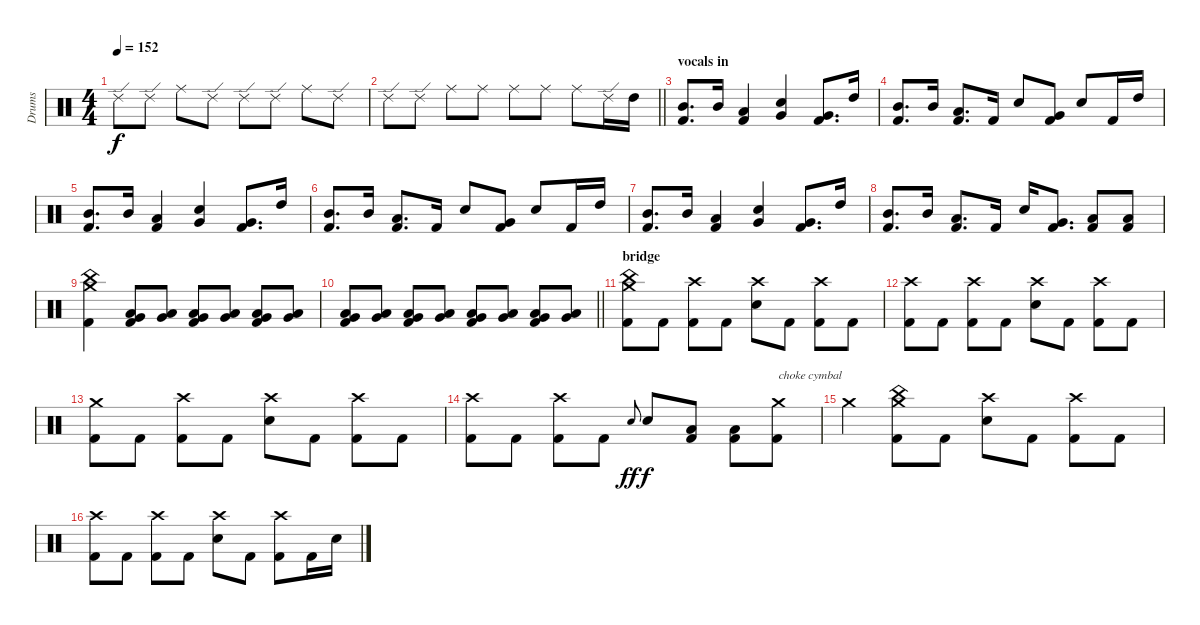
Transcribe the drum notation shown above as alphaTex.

\track ("Drums" "Drums") {instrument percussion}
\staff {score}
\articulation defaults
\ts (4 4)
\tempo 152
\clef neutral
\ks c "Ride (edge) 2".8{dy f} "Ride (edge) 2".8 "Ride (middle)".8 "Ride (edge) 2".8 "Ride (edge) 2".8 "Ride (edge) 2".8 "Ride (middle)".8 "Ride (edge) 2".8
|
\barLineRight lightlight "Ride (edge) 2".8 "Ride (edge) 2".8 "Ride (middle)".8 "Ride (middle)".8 "Ride (middle)".8 "Ride (middle)".8 "Ride (middle)".8 "Ride (edge) 2".16 "High Tom (hit)".16
|
\section ("" "vocals in")
("Mid Tom (hit)" "Kick (hit) 2").8{d} "Mid Tom (hit)".16 ("Low Tom (hit)" "Kick (hit) 2").4 ("Very Low Tom (hit)" "Electric Snare (hit)").4 ("Very Low Tom (hit)" "Kick (hit) 2").8{d} "High Tom (hit)".16 |
("Mid Tom (hit)" "Kick (hit) 2").8{d} "Mid Tom (hit)".16 ("Low Tom (hit)" "Kick (hit) 2").8{d} "Kick (hit) 2".16 "Electric Snare (hit)".8 ("Very Low Tom (hit)" "Kick (hit) 2").8 "Electric Snare (hit)".8 "Kick (hit) 2".16 "High Tom (hit)".16 |
("Mid Tom (hit)" "Kick (hit) 2").8{d} "Mid Tom (hit)".16 ("Low Tom (hit)" "Kick (hit) 2").4 ("Very Low Tom (hit)" "Electric Snare (hit)").4 ("Very Low Tom (hit)" "Kick (hit) 2").8{d} "High Tom (hit)".16 |
("Mid Tom (hit)" "Kick (hit) 2").8{d} "Mid Tom (hit)".16 ("Low Tom (hit)" "Kick (hit) 2").8{d} "Kick (hit) 2".16 "Electric Snare (hit)".8 ("Very Low Tom (hit)" "Kick (hit) 2").8 "Electric Snare (hit)".8 "Kick (hit) 2".16 "High Tom (hit)".16 |
("Mid Tom (hit)" "Kick (hit) 2").8{d} "Mid Tom (hit)".16 ("Low Tom (hit)" "Kick (hit) 2").4 ("Very Low Tom (hit)" "Electric Snare (hit)").4 ("Very Low Tom (hit)" "Kick (hit) 2").8{d} "High Tom (hit)".16 |
("Mid Tom (hit)" "Kick (hit) 2").8{d} "Mid Tom (hit)".16 ("Low Tom (hit)" "Kick (hit) 2").8{d} "Kick (hit) 2".16 "Electric Snare (hit)".16 ("Very Low Tom (hit)" "Kick (hit) 2").8{d} ("Low Tom (hit)" "Kick (hit) 2").8 ("Low Floor Tom (hit)" "Kick (hit) 2").8 |
("China (hit)" "Crash medium (hit)" "Kick (hit) 2").4 ("Very Low Tom (hit)" "Low Floor Tom (hit)" "Kick (hit) 2").8 ("Very Low Tom (hit)" "Low Floor Tom (hit)").8 ("Very Low Tom (hit)" "Low Floor Tom (hit)" "Kick (hit) 2").8 ("Very Low Tom (hit)" "Low Floor Tom (hit)").8 ("Very Low Tom (hit)" "Low Floor Tom (hit)" "Kick (hit) 2").8 ("Very Low Tom (hit)" "Low Floor Tom (hit)").8 |
\barLineRight lightlight
("Very Low Tom (hit)" "Low Floor Tom (hit)" "Kick (hit) 2").8 ("Very Low Tom (hit)" "Low Floor Tom (hit)").8 ("Very Low Tom (hit)" "Low Floor Tom (hit)" "Kick (hit) 2").8 ("Very Low Tom (hit)" "Low Floor Tom (hit)").8 ("Very Low Tom (hit)" "Low Floor Tom (hit)" "Kick (hit) 2").8 ("Very Low Tom (hit)" "Low Floor Tom (hit)").8 ("Very Low Tom (hit)" "Low Floor Tom (hit)" "Kick (hit) 2").8 ("Very Low Tom (hit)" "Low Floor Tom (hit)").8 |
\section ("" "bridge")
("China (hit)" "Crash medium (hit)" "Kick (hit) 2").8 "Kick (hit) 2".8 ("Crash high (hit)" "Kick (hit) 2").8 "Kick (hit) 2".8 ("Crash high (hit)" "Electric Snare (hit)").8 "Kick (hit) 2".8 ("Crash high (hit)" "Kick (hit) 2").8 "Kick (hit) 2".8 |
("Crash high (hit)" "Kick (hit) 2").8 "Kick (hit) 2".8 ("Crash high (hit)" "Kick (hit) 2").8 "Kick (hit) 2".8 ("Crash high (hit)" "Electric Snare (hit)").8 "Kick (hit) 2".8 ("Crash high (hit)" "Kick (hit) 2").8 "Kick (hit) 2".8 |
("Crash medium (hit)" "Kick (hit) 2").8 "Kick (hit) 2".8 ("Crash high (hit)" "Kick (hit) 2").8 "Kick (hit) 2".8 ("Crash high (hit)" "Electric Snare (hit)").8 "Kick (hit) 2".8 ("Crash high (hit)" "Kick (hit) 2").8 "Kick (hit) 2".8 |
("Crash high (hit)" "Kick (hit) 2").8 "Kick (hit) 2".8 ("Crash high (hit)" "Kick (hit) 2").8 "Kick (hit) 2".8 "Electric Snare (hit)".8{gr onbeat dy ff} "Electric Snare (hit)".8{dy f} ("Low Tom (hit)" "Kick (hit) 2").8 ("Low Tom (hit)" "Kick (hit) 2").8 ("Crash medium (hit)" "Kick (hit) 2").8{txt "choke cymbal"} |
"Crash medium (hit)".4{volume 0} ("China (hit)" "Crash medium (hit)" "Kick (hit) 2").8{volume 14} "Kick (hit) 2".8 ("Crash high (hit)" "Electric Snare (hit)").8 "Kick (hit) 2".8 ("Crash high (hit)" "Kick (hit) 2").8 "Kick (hit) 2".8 |
("Crash high (hit)" "Kick (hit) 2").8 "Kick (hit) 2".8 ("Crash high (hit)" "Kick (hit) 2").8 "Kick (hit) 2".8 ("Crash high (hit)" "Electric Snare (hit)").8 "Kick (hit) 2".8 ("Crash high (hit)" "Kick (hit) 2").8 "Kick (hit) 2".16 "Electric Snare (hit)".16
